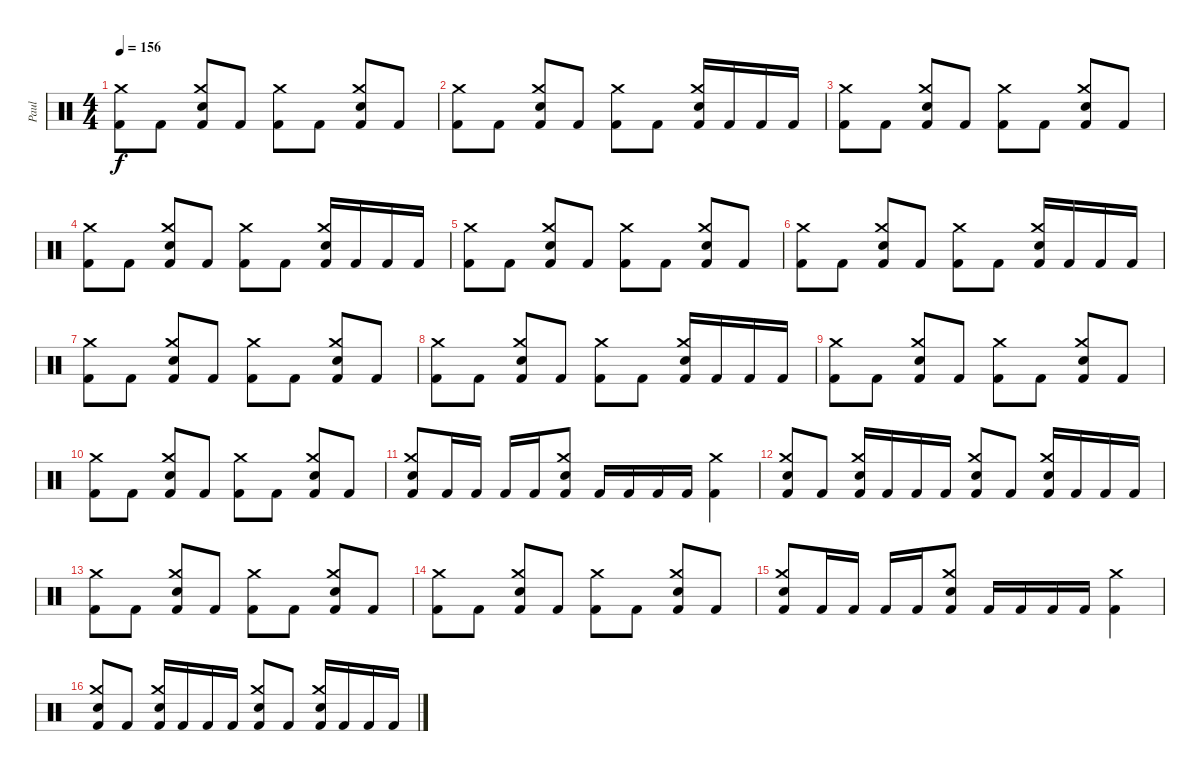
\track ("Paul" "Paul") {instrument percussion}
\staff {score}
\articulation defaults
\ts (4 4)
\tempo 156
\clef neutral
\ks c
("Kick (hit) 2" "Crash medium (hit)").8{dy f} "Kick (hit) 2".8 ("Kick (hit) 2" "Snare (hit) 2" "Crash medium (hit)").8 "Kick (hit) 2".8 ("Kick (hit) 2" "Crash medium (hit)").8 "Kick (hit) 2".8 ("Kick (hit) 2" "Snare (hit) 2" "Crash medium (hit)").8 "Kick (hit) 2".8 |
("Kick (hit) 2" "Crash medium (hit)").8 "Kick (hit) 2".8 ("Kick (hit) 2" "Snare (hit) 2" "Crash medium (hit)").8 "Kick (hit) 2".8 ("Kick (hit) 2" "Crash medium (hit)").8 "Kick (hit) 2".8 ("Kick (hit) 2" "Snare (hit) 2" "Crash medium (hit)").16 "Kick (hit) 2".16 "Kick (hit) 2".16 "Kick (hit) 2".16 |
("Kick (hit) 2" "Crash medium (hit)").8 "Kick (hit) 2".8 ("Kick (hit) 2" "Snare (hit) 2" "Crash medium (hit)").8 "Kick (hit) 2".8 ("Kick (hit) 2" "Crash medium (hit)").8 "Kick (hit) 2".8 ("Kick (hit) 2" "Snare (hit) 2" "Crash medium (hit)").8 "Kick (hit) 2".8 |
("Kick (hit) 2" "Crash medium (hit)").8 "Kick (hit) 2".8 ("Kick (hit) 2" "Snare (hit) 2" "Crash medium (hit)").8 "Kick (hit) 2".8 ("Kick (hit) 2" "Crash medium (hit)").8 "Kick (hit) 2".8 ("Kick (hit) 2" "Snare (hit) 2" "Crash medium (hit)").16 "Kick (hit) 2".16 "Kick (hit) 2".16 "Kick (hit) 2".16 |
("Kick (hit) 2" "Crash medium (hit)").8 "Kick (hit) 2".8 ("Kick (hit) 2" "Snare (hit) 2" "Crash medium (hit)").8 "Kick (hit) 2".8 ("Kick (hit) 2" "Crash medium (hit)").8 "Kick (hit) 2".8 ("Kick (hit) 2" "Snare (hit) 2" "Crash medium (hit)").8 "Kick (hit) 2".8 |
("Kick (hit) 2" "Crash medium (hit)").8 "Kick (hit) 2".8 ("Kick (hit) 2" "Snare (hit) 2" "Crash medium (hit)").8 "Kick (hit) 2".8 ("Kick (hit) 2" "Crash medium (hit)").8 "Kick (hit) 2".8 ("Kick (hit) 2" "Snare (hit) 2" "Crash medium (hit)").16 "Kick (hit) 2".16 "Kick (hit) 2".16 "Kick (hit) 2".16 |
("Kick (hit) 2" "Crash medium (hit)").8 "Kick (hit) 2".8 ("Kick (hit) 2" "Snare (hit) 2" "Crash medium (hit)").8 "Kick (hit) 2".8 ("Kick (hit) 2" "Crash medium (hit)").8 "Kick (hit) 2".8 ("Kick (hit) 2" "Snare (hit) 2" "Crash medium (hit)").8 "Kick (hit) 2".8 |
("Kick (hit) 2" "Crash medium (hit)").8 "Kick (hit) 2".8 ("Kick (hit) 2" "Snare (hit) 2" "Crash medium (hit)").8 "Kick (hit) 2".8 ("Kick (hit) 2" "Crash medium (hit)").8 "Kick (hit) 2".8 ("Kick (hit) 2" "Snare (hit) 2" "Crash medium (hit)").16 "Kick (hit) 2".16 "Kick (hit) 2".16 "Kick (hit) 2".16 |
("Kick (hit) 2" "Crash medium (hit)").8 "Kick (hit) 2".8 ("Kick (hit) 2" "Snare (hit) 2" "Crash medium (hit)").8 "Kick (hit) 2".8 ("Kick (hit) 2" "Crash medium (hit)").8 "Kick (hit) 2".8 ("Kick (hit) 2" "Snare (hit) 2" "Crash medium (hit)").8 "Kick (hit) 2".8 |
("Kick (hit) 2" "Crash medium (hit)").8 "Kick (hit) 2".8 ("Kick (hit) 2" "Snare (hit) 2" "Crash medium (hit)").8 "Kick (hit) 2".8 ("Kick (hit) 2" "Crash medium (hit)").8 "Kick (hit) 2".8 ("Kick (hit) 2" "Snare (hit) 2" "Crash medium (hit)").8 "Kick (hit) 2".8 |
("Kick (hit) 2" "Snare (hit) 2" "Crash medium (hit)").8 "Kick (hit) 2".16 "Kick (hit) 2".16 "Kick (hit) 2".16 "Kick (hit) 2".16 ("Kick (hit) 2" "Snare (hit) 2" "Crash medium (hit)").8 "Kick (hit) 2".16 "Kick (hit) 2".16 "Kick (hit) 2".16 "Kick (hit) 2".16 ("Kick (hit) 2" "Crash medium (hit)").4 |
("Kick (hit) 2" "Snare (hit) 2" "Crash medium (hit)").8 "Kick (hit) 2".8 ("Kick (hit) 2" "Snare (hit) 2" "Crash medium (hit)").16 "Kick (hit) 2".16 "Kick (hit) 2".16 "Kick (hit) 2".16 ("Kick (hit) 2" "Snare (hit) 2" "Crash medium (hit)").8 "Kick (hit) 2".8 ("Kick (hit) 2" "Snare (hit) 2" "Crash medium (hit)").16 "Kick (hit) 2".16 "Kick (hit) 2".16 "Kick (hit) 2".16 |
("Kick (hit) 2" "Crash medium (hit)").8 "Kick (hit) 2".8 ("Kick (hit) 2" "Snare (hit) 2" "Crash medium (hit)").8 "Kick (hit) 2".8 ("Kick (hit) 2" "Crash medium (hit)").8 "Kick (hit) 2".8 ("Kick (hit) 2" "Snare (hit) 2" "Crash medium (hit)").8 "Kick (hit) 2".8 |
("Kick (hit) 2" "Crash medium (hit)").8 "Kick (hit) 2".8 ("Kick (hit) 2" "Snare (hit) 2" "Crash medium (hit)").8 "Kick (hit) 2".8 ("Kick (hit) 2" "Crash medium (hit)").8 "Kick (hit) 2".8 ("Kick (hit) 2" "Snare (hit) 2" "Crash medium (hit)").8 "Kick (hit) 2".8 |
("Kick (hit) 2" "Snare (hit) 2" "Crash medium (hit)").8 "Kick (hit) 2".16 "Kick (hit) 2".16 "Kick (hit) 2".16 "Kick (hit) 2".16 ("Kick (hit) 2" "Snare (hit) 2" "Crash medium (hit)").8 "Kick (hit) 2".16 "Kick (hit) 2".16 "Kick (hit) 2".16 "Kick (hit) 2".16 ("Kick (hit) 2" "Crash medium (hit)").4 |
("Kick (hit) 2" "Snare (hit) 2" "Crash medium (hit)").8 "Kick (hit) 2".8 ("Kick (hit) 2" "Snare (hit) 2" "Crash medium (hit)").16 "Kick (hit) 2".16 "Kick (hit) 2".16 "Kick (hit) 2".16 ("Kick (hit) 2" "Snare (hit) 2" "Crash medium (hit)").8 "Kick (hit) 2".8 ("Kick (hit) 2" "Snare (hit) 2" "Crash medium (hit)").16 "Kick (hit) 2".16 "Kick (hit) 2".16 "Kick (hit) 2".16
